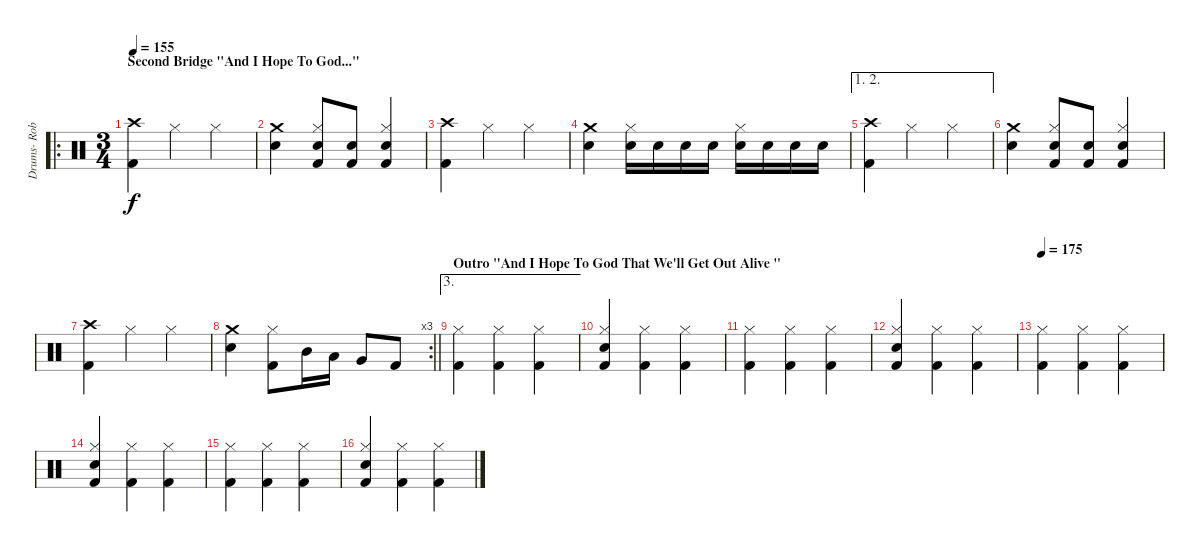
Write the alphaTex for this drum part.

\track ("Drums- Rob Rolfe" "Drums- Rob") {instrument percussion}
\staff {score}
\articulation defaults
\ro
\ts (3 4)
\section ("" "Second Bridge \"And I Hope To God...\"")
\tempo 155
\clef neutral
\ks c
("Crash high (hit)" "Kick (hit) 2").4{dy f} "Hi-Hat (closed)".4 "Hi-Hat (closed)".4 |
("Crash medium (hit)" "Snare (hit) 2").4 ("Hi-Hat (closed)" "Snare (hit) 2" "Kick (hit) 2").8 ("Snare (hit) 2" "Kick (hit) 2").8 ("Hi-Hat (closed)" "Snare (hit) 2" "Kick (hit) 2").4 |
("Crash high (hit)" "Kick (hit) 2").4 "Hi-Hat (closed)".4 "Hi-Hat (closed)".4 |
("Crash medium (hit)" "Snare (hit) 2").4 ("Hi-Hat (closed)" "Snare (hit) 2").16 "Snare (hit) 2".16 "Snare (hit) 2".16 "Snare (hit) 2".16 ("Hi-Hat (closed)" "Snare (hit) 2").16 "Snare (hit) 2".16 "Snare (hit) 2".16 "Snare (hit) 2".16 |
\ae (1 2)
("Crash high (hit)" "Kick (hit) 2").4 "Hi-Hat (closed)".4 "Hi-Hat (closed)".4 |
("Crash medium (hit)" "Snare (hit) 2").4 ("Hi-Hat (closed)" "Snare (hit) 2" "Kick (hit) 2").8 ("Snare (hit) 2" "Kick (hit) 2").8 ("Hi-Hat (closed)" "Snare (hit) 2" "Kick (hit) 2").4 |
("Crash high (hit)" "Kick (hit) 2").4 "Hi-Hat (closed)".4 "Hi-Hat (closed)".4 |
\rc 3
\barLineRight lightlight
("Crash medium (hit)" "Snare (hit) 2").4 ("Hi-Hat (closed)" "Kick (hit) 2").8 "Mid Tom (hit)".16 "Low Tom (hit)".16 "Very Low Tom (hit)".8 "Kick (hit) 2".8 |
\ae 3
\section ("" "Outro \"And I Hope To God That We'll Get Out Alive \"")
("Hi-Hat (closed)" "Kick (hit) 2").4 ("Hi-Hat (closed)" "Kick (hit) 2").4 ("Hi-Hat (closed)" "Kick (hit) 2").4 |
("Hi-Hat (closed)" "Snare (hit) 2" "Kick (hit) 2").4 ("Hi-Hat (closed)" "Kick (hit) 2").4 ("Hi-Hat (closed)" "Kick (hit) 2").4 |
("Hi-Hat (closed)" "Kick (hit) 2").4 ("Hi-Hat (closed)" "Kick (hit) 2").4 ("Hi-Hat (closed)" "Kick (hit) 2").4 |
("Hi-Hat (closed)" "Snare (hit) 2" "Kick (hit) 2").4 ("Hi-Hat (closed)" "Kick (hit) 2").4 ("Hi-Hat (closed)" "Kick (hit) 2").4 |
\tempo 175
("Hi-Hat (closed)" "Kick (hit) 2").4 ("Hi-Hat (closed)" "Kick (hit) 2").4 ("Hi-Hat (closed)" "Kick (hit) 2").4 |
("Hi-Hat (closed)" "Snare (hit) 2" "Kick (hit) 2").4 ("Hi-Hat (closed)" "Kick (hit) 2").4 ("Hi-Hat (closed)" "Kick (hit) 2").4 |
("Hi-Hat (closed)" "Kick (hit) 2").4 ("Hi-Hat (closed)" "Kick (hit) 2").4 ("Hi-Hat (closed)" "Kick (hit) 2").4 |
("Hi-Hat (closed)" "Snare (hit) 2" "Kick (hit) 2").4 ("Hi-Hat (closed)" "Kick (hit) 2").4 ("Hi-Hat (closed)" "Kick (hit) 2").4
